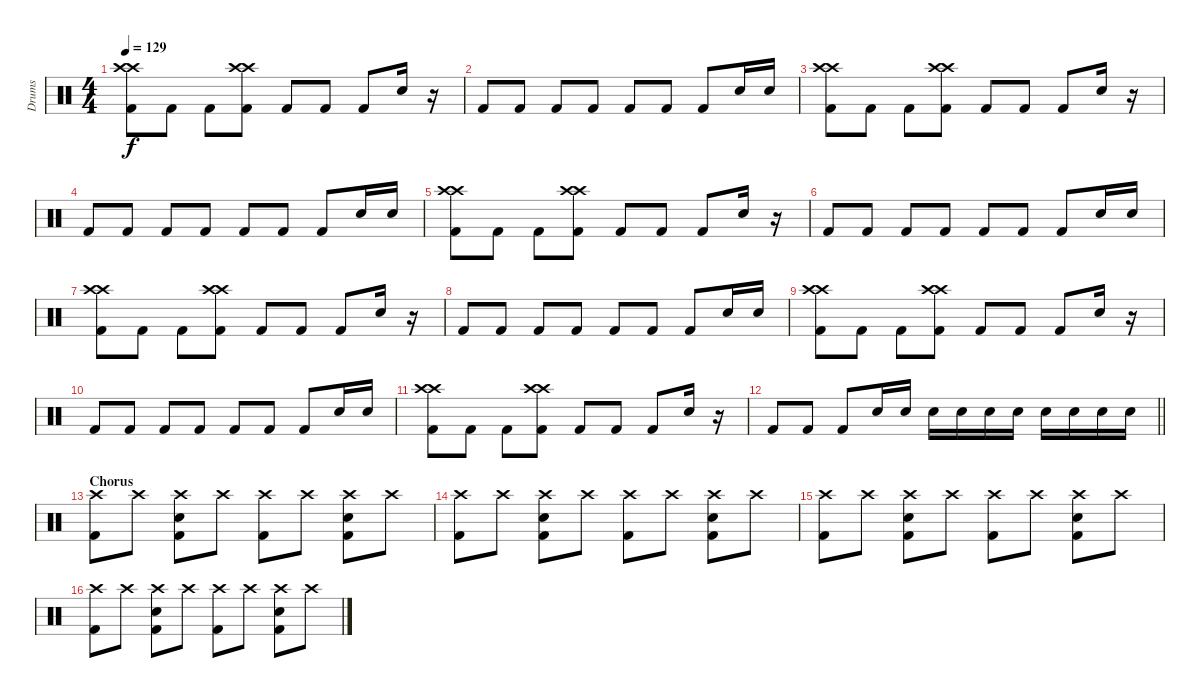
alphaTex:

\track ("Drums" "Drums") {instrument percussion}
\staff {score}
\articulation defaults
\ts (4 4)
\tempo 129
\clef neutral
\ks c
("Crash high (hit)" "Crash high (hit)" "Kick (hit) 2").8{dy f} "Kick (hit) 2".8 "Kick (hit) 2".8 ("Crash high (hit)" "Crash high (hit)" "Kick (hit) 2").8 "Kick (hit) 2".8 "Kick (hit) 2".8 "Kick (hit) 2".8 "Snare (hit) 2".16 r.16 |
"Kick (hit) 2".8 "Kick (hit) 2".8 "Kick (hit) 2".8 "Kick (hit) 2".8 "Kick (hit) 2".8 "Kick (hit) 2".8 "Kick (hit) 2".8 "Snare (hit) 2".16 "Snare (hit) 2".16 |
("Crash high (hit)" "Crash high (hit)" "Kick (hit) 2").8 "Kick (hit) 2".8 "Kick (hit) 2".8 ("Crash high (hit)" "Crash high (hit)" "Kick (hit) 2").8 "Kick (hit) 2".8 "Kick (hit) 2".8 "Kick (hit) 2".8 "Snare (hit) 2".16 r.16 |
"Kick (hit) 2".8 "Kick (hit) 2".8 "Kick (hit) 2".8 "Kick (hit) 2".8 "Kick (hit) 2".8 "Kick (hit) 2".8 "Kick (hit) 2".8 "Snare (hit) 2".16 "Snare (hit) 2".16 |
("Crash high (hit)" "Crash high (hit)" "Kick (hit) 2").8 "Kick (hit) 2".8 "Kick (hit) 2".8 ("Crash high (hit)" "Crash high (hit)" "Kick (hit) 2").8 "Kick (hit) 2".8 "Kick (hit) 2".8 "Kick (hit) 2".8 "Snare (hit) 2".16 r.16 |
"Kick (hit) 2".8 "Kick (hit) 2".8 "Kick (hit) 2".8 "Kick (hit) 2".8 "Kick (hit) 2".8 "Kick (hit) 2".8 "Kick (hit) 2".8 "Snare (hit) 2".16 "Snare (hit) 2".16 |
("Crash high (hit)" "Crash high (hit)" "Kick (hit) 2").8 "Kick (hit) 2".8 "Kick (hit) 2".8 ("Crash high (hit)" "Crash high (hit)" "Kick (hit) 2").8 "Kick (hit) 2".8 "Kick (hit) 2".8 "Kick (hit) 2".8 "Snare (hit) 2".16 r.16 |
"Kick (hit) 2".8 "Kick (hit) 2".8 "Kick (hit) 2".8 "Kick (hit) 2".8 "Kick (hit) 2".8 "Kick (hit) 2".8 "Kick (hit) 2".8 "Snare (hit) 2".16 "Snare (hit) 2".16 |
("Crash high (hit)" "Crash high (hit)" "Kick (hit) 2").8 "Kick (hit) 2".8 "Kick (hit) 2".8 ("Crash high (hit)" "Crash high (hit)" "Kick (hit) 2").8 "Kick (hit) 2".8 "Kick (hit) 2".8 "Kick (hit) 2".8 "Snare (hit) 2".16 r.16 |
"Kick (hit) 2".8 "Kick (hit) 2".8 "Kick (hit) 2".8 "Kick (hit) 2".8 "Kick (hit) 2".8 "Kick (hit) 2".8 "Kick (hit) 2".8 "Snare (hit) 2".16 "Snare (hit) 2".16 |
("Crash high (hit)" "Crash high (hit)" "Kick (hit) 2").8 "Kick (hit) 2".8 "Kick (hit) 2".8 ("Crash high (hit)" "Crash high (hit)" "Kick (hit) 2").8 "Kick (hit) 2".8 "Kick (hit) 2".8 "Kick (hit) 2".8 "Snare (hit) 2".16 r.16 |
\barLineRight lightlight "Kick (hit) 2".8 "Kick (hit) 2".8 "Kick (hit) 2".8 "Snare (hit) 2".16 "Snare (hit) 2".16 "Snare (hit) 2".16 "Snare (hit) 2".16 "Snare (hit) 2".16 "Snare (hit) 2".16 "Snare (hit) 2".16 "Snare (hit) 2".16 "Snare (hit) 2".16 "Snare (hit) 2".16
|
\section ("" "Chorus")
("Crash high (hit)" "Kick (hit) 2").8 "Crash high (hit)".8 ("Crash high (hit)" "Snare (hit) 2" "Kick (hit) 2").8 "Crash high (hit)".8 ("Crash high (hit)" "Kick (hit) 2").8 "Crash high (hit)".8 ("Crash high (hit)" "Snare (hit) 2" "Kick (hit) 2").8 "Crash high (hit)".8 |
("Crash high (hit)" "Kick (hit) 2").8 "Crash high (hit)".8 ("Crash high (hit)" "Snare (hit) 2" "Kick (hit) 2").8 "Crash high (hit)".8 ("Crash high (hit)" "Kick (hit) 2").8 "Crash high (hit)".8 ("Crash high (hit)" "Snare (hit) 2" "Kick (hit) 2").8 "Crash high (hit)".8 |
("Crash high (hit)" "Kick (hit) 2").8 "Crash high (hit)".8 ("Crash high (hit)" "Snare (hit) 2" "Kick (hit) 2").8 "Crash high (hit)".8 ("Crash high (hit)" "Kick (hit) 2").8 "Crash high (hit)".8 ("Crash high (hit)" "Snare (hit) 2" "Kick (hit) 2").8 "Crash high (hit)".8 |
("Crash high (hit)" "Kick (hit) 2").8 "Crash high (hit)".8 ("Crash high (hit)" "Snare (hit) 2" "Kick (hit) 2").8 "Crash high (hit)".8 ("Crash high (hit)" "Kick (hit) 2").8 "Crash high (hit)".8 ("Crash high (hit)" "Snare (hit) 2" "Kick (hit) 2").8 "Crash high (hit)".8
